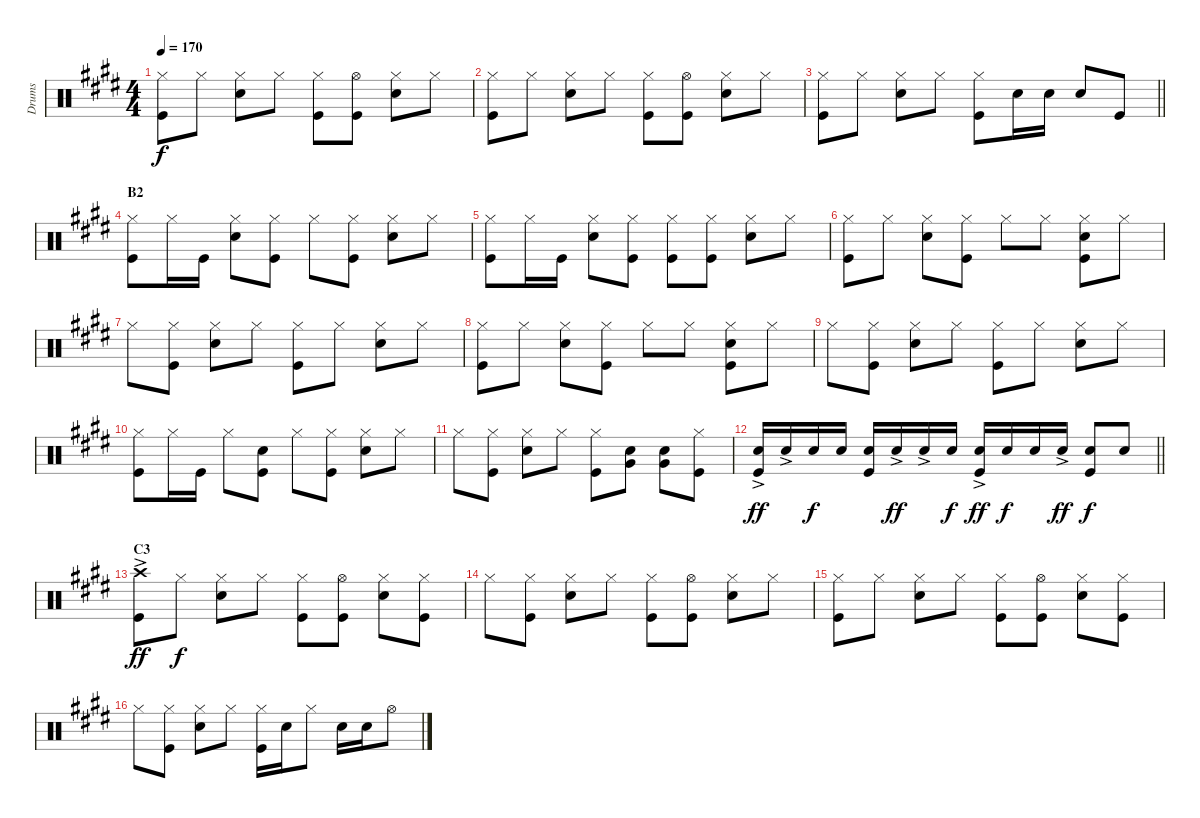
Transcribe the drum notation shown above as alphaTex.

\track ("Drums" "Drums") {instrument percussion}
\staff {score}
\articulation defaults
\ts (4 4)
\tempo 170
\clef neutral
\ks e
("Hi-Hat (closed)" "Kick (hit)").8{dy f} "Hi-Hat (closed)".8 ("Hi-Hat (closed)" "Snare (hit) 2").8 "Hi-Hat (closed)".8 ("Hi-Hat (closed)" "Kick (hit)").8 ("Kick (hit)" "Hi-Hat (open)").8 ("Hi-Hat (closed)" "Snare (hit) 2").8 "Hi-Hat (closed)".8 |
("Hi-Hat (closed)" "Kick (hit)").8 "Hi-Hat (closed)".8 ("Hi-Hat (closed)" "Snare (hit) 2").8 "Hi-Hat (closed)".8 ("Hi-Hat (closed)" "Kick (hit)").8 ("Kick (hit)" "Hi-Hat (open)").8 ("Hi-Hat (closed)" "Snare (hit) 2").8 "Hi-Hat (closed)".8 |
\barLineRight lightlight
("Hi-Hat (closed)" "Kick (hit)").8 "Hi-Hat (closed)".8 ("Hi-Hat (closed)" "Snare (hit) 2").8 "Hi-Hat (closed)".8 ("Hi-Hat (closed)" "Kick (hit)").8 "Snare (hit) 2".16 "Snare (hit) 2".16 "Snare (hit) 2".8 "Kick (hit)".8 |
\section ("" "B2")
("Hi-Hat (closed)" "Kick (hit)").8 "Hi-Hat (closed)".16 "Kick (hit)".16 ("Hi-Hat (closed)" "Snare (hit) 2").8 ("Hi-Hat (closed)" "Kick (hit)").8 "Hi-Hat (closed)".8 ("Hi-Hat (closed)" "Kick (hit)").8 ("Hi-Hat (closed)" "Snare (hit) 2").8 "Hi-Hat (closed)".8 |
("Hi-Hat (closed)" "Kick (hit)").8 "Hi-Hat (closed)".16 "Kick (hit)".16 ("Hi-Hat (closed)" "Snare (hit) 2").8 ("Hi-Hat (closed)" "Kick (hit)").8 ("Hi-Hat (closed)" "Kick (hit)").8 ("Hi-Hat (closed)" "Kick (hit)").8 ("Hi-Hat (closed)" "Snare (hit) 2").8 "Hi-Hat (closed)".8 |
("Hi-Hat (closed)" "Kick (hit)").8 "Hi-Hat (closed)".8 ("Hi-Hat (closed)" "Snare (hit) 2").8 ("Hi-Hat (closed)" "Kick (hit)").8 "Hi-Hat (closed)".8 "Hi-Hat (closed)".8 ("Hi-Hat (closed)" "Snare (hit) 2" "Kick (hit)").8 "Hi-Hat (closed)".8 |
"Hi-Hat (closed)".8 ("Hi-Hat (closed)" "Kick (hit)").8 ("Hi-Hat (closed)" "Snare (hit) 2").8 "Hi-Hat (closed)".8 ("Hi-Hat (closed)" "Kick (hit)").8 "Hi-Hat (closed)".8 ("Hi-Hat (closed)" "Snare (hit) 2").8 "Hi-Hat (closed)".8 |
("Hi-Hat (closed)" "Kick (hit)").8 "Hi-Hat (closed)".8 ("Hi-Hat (closed)" "Snare (hit) 2").8 ("Hi-Hat (closed)" "Kick (hit)").8 "Hi-Hat (closed)".8 "Hi-Hat (closed)".8 ("Hi-Hat (closed)" "Snare (hit) 2" "Kick (hit)").8 "Hi-Hat (closed)".8 |
"Hi-Hat (closed)".8 ("Hi-Hat (closed)" "Kick (hit)").8 ("Hi-Hat (closed)" "Snare (hit) 2").8 "Hi-Hat (closed)".8 ("Hi-Hat (closed)" "Kick (hit)").8 "Hi-Hat (closed)".8 ("Hi-Hat (closed)" "Snare (hit) 2").8 "Hi-Hat (closed)".8 |
("Hi-Hat (closed)" "Kick (hit)").8 "Hi-Hat (closed)".16 "Kick (hit)".16 "Hi-Hat (closed)".8 ("Kick (hit)" "Snare (hit) 2").8 "Hi-Hat (closed)".8 ("Hi-Hat (closed)" "Kick (hit)").8 ("Hi-Hat (closed)" "Snare (hit) 2").8 "Hi-Hat (closed)".8 |
"Hi-Hat (closed)".8 ("Kick (hit)" "Hi-Hat (closed)").8 ("Hi-Hat (closed)" "Snare (hit) 2").8 "Hi-Hat (closed)".8 ("Hi-Hat (closed)" "Kick (hit)").8 ("Snare (hit) 2" "Very Low Tom (hit)").8 ("Very Low Tom (hit)" "Snare (hit) 2").8 ("Hi-Hat (closed)" "Kick (hit)").8 |
\barLineRight lightlight
("Kick (hit)" "Snare (hit) 2"{ac}).16{dy ff} "Snare (hit) 2"{ac}.16 "Snare (hit) 2".16{dy f} "Snare (hit) 2".16 ("Kick (hit)" "Snare (hit) 2").16 "Snare (hit) 2"{ac}.16{dy ff} "Snare (hit) 2"{ac}.16 "Snare (hit) 2".16{dy f} ("Kick (hit)" "Snare (hit) 2"{ac}).16{dy ff} "Snare (hit) 2".16{dy f} "Snare (hit) 2".16 "Snare (hit) 2"{ac}.16{dy ff} ("Kick (hit)" "Snare (hit) 2").8{dy f} "Snare (hit) 2".8 |
\section ("" "C3")
("Crash high (hit)"{ac} "Kick (hit)").8{dy ff} "Hi-Hat (closed)".8{dy f} ("Hi-Hat (closed)" "Snare (hit) 2").8 "Hi-Hat (closed)".8 ("Hi-Hat (closed)" "Kick (hit)").8 ("Kick (hit)" "Hi-Hat (open)").8 ("Hi-Hat (closed)" "Snare (hit) 2").8 ("Hi-Hat (closed)" "Kick (hit)").8 |
"Hi-Hat (closed)".8 ("Hi-Hat (closed)" "Kick (hit)").8 ("Hi-Hat (closed)" "Snare (hit) 2").8 "Hi-Hat (closed)".8 ("Hi-Hat (closed)" "Kick (hit)").8 ("Kick (hit)" "Hi-Hat (open)").8 ("Hi-Hat (closed)" "Snare (hit) 2").8 "Hi-Hat (closed)".8 |
("Hi-Hat (closed)" "Kick (hit)").8 "Hi-Hat (closed)".8 ("Hi-Hat (closed)" "Snare (hit) 2").8 "Hi-Hat (closed)".8 ("Hi-Hat (closed)" "Kick (hit)").8 ("Kick (hit)" "Hi-Hat (open)").8 ("Hi-Hat (closed)" "Snare (hit) 2").8 ("Hi-Hat (closed)" "Kick (hit)").8 |
"Hi-Hat (closed)".8 ("Hi-Hat (closed)" "Kick (hit)").8 ("Hi-Hat (closed)" "Snare (hit) 2").8 "Hi-Hat (closed)".8 ("Hi-Hat (closed)" "Kick (hit)").16 "Snare (hit) 2".16 "Hi-Hat (closed)".8 "Snare (hit) 2".16 "Snare (hit) 2".16 "Hi-Hat (open)".8
